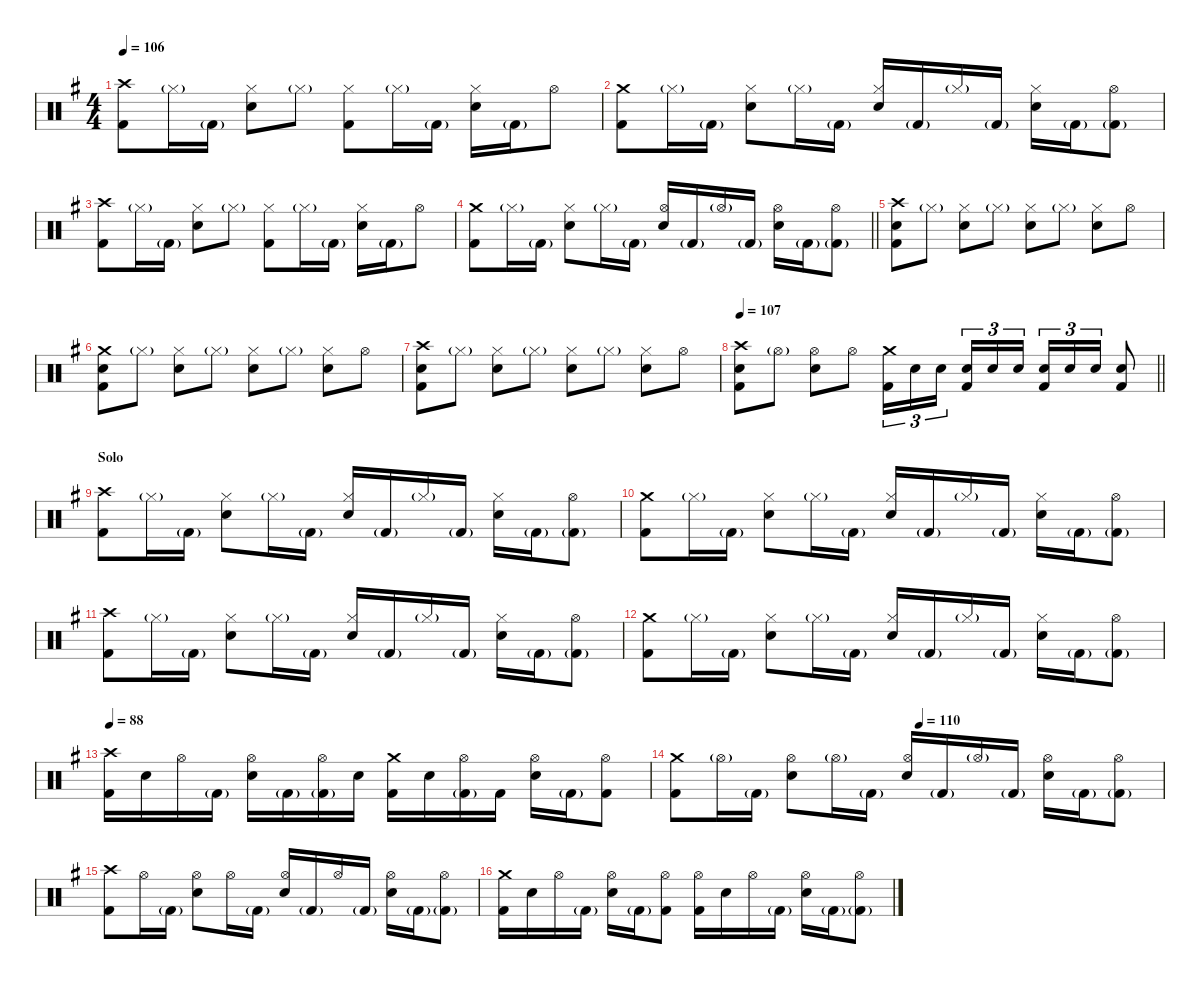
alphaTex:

\defaultSystemsLayout 4
\hideDynamics
\bracketExtendMode nobrackets
\singleTrackTrackNamePolicy hidden
\multiTrackTrackNamePolicy hidden
\firstSystemTrackNameMode fullname
\firstSystemTrackNameOrientation horizontal
\otherSystemsTrackNameOrientation horizontal
\track ("Bill" "drm.") {instrument percussion}
\staff {score}
\articulation defaults
\ts (4 4)
\tempo 106
\clef neutral
\ks eminor
("Crash high (hit)"{acc forcenatural} "Kick (hit) 2"{acc forcenatural}).8{dy f beam Down} "Hi-Hat (closed)"{g acc forcenatural}.16{dy mf beam Down} "Kick (hit) 2"{g acc forcenatural}.16{beam Down} ("Hi-Hat (closed)"{acc forcenatural} "Snare (hit) 2"{acc forcenatural}).8{dy f beam Down} "Hi-Hat (closed)"{g acc forcenatural}.8{dy mf beam Down} ("Hi-Hat (closed)"{acc forcenatural} "Kick (hit) 2"{acc forcenatural}).8{dy f beam Down} "Hi-Hat (closed)"{g acc forcenatural}.16{dy mf beam Down} "Kick (hit) 2"{g acc forcenatural}.16{beam Down} ("Hi-Hat (closed)"{acc forcenatural} "Snare (hit) 2"{acc forcenatural}).16{dy f beam Down} "Kick (hit) 2"{g acc forcenatural}.16{dy mf beam Down} "Hi-Hat (open)"{acc forcenatural}.8{dy f beam Down} |
("Crash medium (hit)"{acc forcenatural} "Kick (hit) 2"{acc forcenatural}).8{beam Down} "Hi-Hat (closed)"{g acc forcenatural}.16{dy mf beam Down} "Kick (hit) 2"{g acc forcenatural}.16{beam Down} ("Hi-Hat (closed)"{acc forcenatural} "Snare (hit) 2"{acc forcenatural}).8{dy f beam Down} "Hi-Hat (closed)"{g acc forcenatural}.16{dy mf beam Down} "Kick (hit) 2"{g acc forcenatural}.16{beam Down} ("Hi-Hat (closed)"{acc forcenatural} "Snare (hit) 2"{acc forcenatural}).16{dy f beam Up} "Kick (hit) 2"{g acc forcenatural}.16{dy mf beam Up} "Hi-Hat (closed)"{g acc forcenatural}.16{beam Up} "Kick (hit) 2"{g acc forcenatural}.16{beam Up} ("Hi-Hat (closed)"{acc forcenatural} "Snare (hit) 2"{acc forcenatural}).16{dy f beam Down} "Kick (hit) 2"{g acc forcenatural}.16{dy mf beam Down} ("Hi-Hat (open)"{acc forcenatural} "Kick (hit) 2"{g acc forcenatural}).8{dy f beam Down} |
("Crash high (hit)"{acc forcenatural} "Kick (hit) 2"{acc forcenatural}).8{beam Down} "Hi-Hat (closed)"{g acc forcenatural}.16{dy mf beam Down} "Kick (hit) 2"{g acc forcenatural}.16{beam Down} ("Hi-Hat (closed)"{acc forcenatural} "Snare (hit) 2"{acc forcenatural}).8{dy f beam Down} "Hi-Hat (closed)"{g acc forcenatural}.8{dy mf beam Down} ("Hi-Hat (closed)"{acc forcenatural} "Kick (hit) 2"{acc forcenatural}).8{dy f beam Down} "Hi-Hat (closed)"{g acc forcenatural}.16{dy mf beam Down} "Kick (hit) 2"{g acc forcenatural}.16{beam Down} ("Hi-Hat (closed)"{acc forcenatural} "Snare (hit) 2"{acc forcenatural}).16{dy f beam Down} "Kick (hit) 2"{g acc forcenatural}.16{dy mf beam Down} "Hi-Hat (open)"{acc forcenatural}.8{dy f beam Down} |
\barLineRight lightlight
("Crash medium (hit)"{acc forcenatural} "Kick (hit) 2"{acc forcenatural}).8{beam Down} "Hi-Hat (closed)"{g acc forcenatural}.16{dy mf beam Down} "Kick (hit) 2"{g acc forcenatural}.16{beam Down} ("Hi-Hat (closed)"{acc forcenatural} "Snare (hit) 2"{acc forcenatural}).8{dy f beam Down} "Hi-Hat (closed)"{g acc forcenatural}.16{dy mf beam Down} "Kick (hit) 2"{g acc forcenatural}.16{beam Down} ("Hi-Hat (open)"{acc forcenatural} "Snare (hit) 2"{acc forcenatural}).16{dy f beam Up} "Kick (hit) 2"{g acc forcenatural}.16{dy mf beam Up} "Hi-Hat (open)"{g acc forcenatural}.16{beam Up} "Kick (hit) 2"{g acc forcenatural}.16{beam Up} ("Hi-Hat (open)"{acc forcenatural} "Snare (hit) 2"{acc forcenatural}).16{dy f beam Down} "Kick (hit) 2"{g acc forcenatural}.16{dy mf beam Down} ("Hi-Hat (open)"{acc forcenatural} "Kick (hit) 2"{g acc forcenatural}).8{dy f beam Down} |
\section ("" "")
("Crash high (hit)"{acc forcenatural} "Snare (hit) 2"{acc forcenatural} "Kick (hit) 2"{acc forcenatural}).8{beam Down} "Hi-Hat (closed)"{g acc forcenatural}.8{dy mf beam Down} ("Hi-Hat (closed)"{acc forcenatural} "Snare (hit) 2"{acc forcenatural}).8{dy f beam Down} "Hi-Hat (closed)"{g acc forcenatural}.8{dy mf beam Down} ("Hi-Hat (closed)"{acc forcenatural} "Snare (hit) 2"{acc forcenatural}).8{dy f beam Down} "Hi-Hat (closed)"{g acc forcenatural}.8{dy mf beam Down} ("Hi-Hat (closed)"{acc forcenatural} "Snare (hit) 2"{acc forcenatural}).8{dy f beam Down} "Hi-Hat (open)"{acc forcenatural}.8{dy mf beam Down} |
("Crash medium (hit)"{acc forcenatural} "Snare (hit) 2"{acc forcenatural} "Kick (hit) 2"{acc forcenatural}).8{dy f beam Down} "Hi-Hat (closed)"{g acc forcenatural}.8{dy mf beam Down} ("Hi-Hat (closed)"{acc forcenatural} "Snare (hit) 2"{acc forcenatural}).8{dy f beam Down} "Hi-Hat (closed)"{g acc forcenatural}.8{dy mf beam Down} ("Hi-Hat (closed)"{acc forcenatural} "Snare (hit) 2"{acc forcenatural}).8{dy f beam Down} "Hi-Hat (closed)"{g acc forcenatural}.8{dy mf beam Down} ("Hi-Hat (closed)"{acc forcenatural} "Snare (hit) 2"{acc forcenatural}).8{dy f beam Down} "Hi-Hat (open)"{acc forcenatural}.8{dy mf beam Down} |
("Crash high (hit)"{acc forcenatural} "Snare (hit) 2"{acc forcenatural} "Kick (hit) 2"{acc forcenatural}).8{dy f beam Down} "Hi-Hat (closed)"{g acc forcenatural}.8{dy mf beam Down} ("Hi-Hat (closed)"{acc forcenatural} "Snare (hit) 2"{acc forcenatural}).8{dy f beam Down} "Hi-Hat (closed)"{g acc forcenatural}.8{dy mf beam Down} ("Hi-Hat (closed)"{acc forcenatural} "Snare (hit) 2"{acc forcenatural}).8{dy f beam Down} "Hi-Hat (closed)"{g acc forcenatural}.8{dy mf beam Down} ("Hi-Hat (closed)"{acc forcenatural} "Snare (hit) 2"{acc forcenatural}).8{dy f beam Down} "Hi-Hat (open)"{acc forcenatural}.8{dy mf beam Down} |
\tempo 107
\barLineRight lightlight
("Crash high (hit)"{acc forcenatural} "Snare (hit) 2"{acc forcenatural} "Kick (hit) 2"{acc forcenatural}).8{dy f beam Down} "Hi-Hat (open)"{g acc forcenatural}.8{dy mf beam Down} ("Hi-Hat (open)"{acc forcenatural} "Snare (hit) 2"{acc forcenatural}).8{dy f beam Down} "Hi-Hat (open)"{acc forcenatural}.8{dy mf beam Down} ("Crash medium (hit)"{acc forcenatural} "Kick (hit) 2"{acc forcenatural}).16{tu (3 2) dy f beam Down} "Snare (hit) 2"{acc forcenatural}.16{tu (3 2) dy p beam Down} "Snare (hit) 2"{acc forcenatural}.16{tu (3 2) beam Down} ("Snare (hit) 2"{acc forcenatural} "Kick (hit) 2"{acc forcenatural}).16{tu (3 2) dy mf beam Up} "Snare (hit) 2"{acc forcenatural}.16{tu (3 2) dy mp beam Up} "Snare (hit) 2"{acc forcenatural}.16{tu (3 2) dy p beam Up} ("Snare (hit) 2"{acc forcenatural} "Kick (hit) 2"{acc forcenatural}).16{tu (3 2) dy mf beam Up} "Snare (hit) 2"{acc forcenatural}.16{tu (3 2) dy mp beam Up} "Snare (hit) 2"{acc forcenatural}.16{tu (3 2) dy p beam Up} ("Snare (hit) 2"{acc forcenatural} "Kick (hit) 2"{acc forcenatural}).8{dy f beam Up} |
\section ("" "Solo")
("Crash high (hit)"{acc forcenatural} "Kick (hit) 2"{acc forcenatural}).8{beam Down} "Hi-Hat (closed)"{g acc forcenatural}.16{dy mf beam Down} "Kick (hit) 2"{g acc forcenatural}.16{beam Down} ("Hi-Hat (closed)"{acc forcenatural} "Snare (hit) 2"{acc forcenatural}).8{dy f beam Down} "Hi-Hat (closed)"{g acc forcenatural}.16{dy mf beam Down} "Kick (hit) 2"{g acc forcenatural}.16{beam Down} ("Hi-Hat (closed)"{acc forcenatural} "Snare (hit) 2"{acc forcenatural}).16{dy f beam Up} "Kick (hit) 2"{g acc forcenatural}.16{dy mf beam Up} "Hi-Hat (closed)"{g acc forcenatural}.16{beam Up} "Kick (hit) 2"{g acc forcenatural}.16{beam Up} ("Hi-Hat (closed)"{acc forcenatural} "Snare (hit) 2"{acc forcenatural}).16{dy f beam Down} "Kick (hit) 2"{g acc forcenatural}.16{dy mf beam Down} ("Hi-Hat (open)"{acc forcenatural} "Kick (hit) 2"{g acc forcenatural}).8{dy f beam Down} |
("Crash medium (hit)"{acc forcenatural} "Kick (hit) 2"{acc forcenatural}).8{beam Down} "Hi-Hat (closed)"{g acc forcenatural}.16{dy mf beam Down} "Kick (hit) 2"{g acc forcenatural}.16{beam Down} ("Hi-Hat (closed)"{acc forcenatural} "Snare (hit) 2"{acc forcenatural}).8{dy f beam Down} "Hi-Hat (closed)"{g acc forcenatural}.16{dy mf beam Down} "Kick (hit) 2"{g acc forcenatural}.16{beam Down} ("Hi-Hat (closed)"{acc forcenatural} "Snare (hit) 2"{acc forcenatural}).16{dy f beam Up} "Kick (hit) 2"{g acc forcenatural}.16{dy mf beam Up} "Hi-Hat (closed)"{g acc forcenatural}.16{beam Up} "Kick (hit) 2"{g acc forcenatural}.16{beam Up} ("Hi-Hat (closed)"{acc forcenatural} "Snare (hit) 2"{acc forcenatural}).16{dy f beam Down} "Kick (hit) 2"{g acc forcenatural}.16{dy mf beam Down} ("Hi-Hat (open)"{acc forcenatural} "Kick (hit) 2"{g acc forcenatural}).8{dy f beam Down} |
("Crash high (hit)"{acc forcenatural} "Kick (hit) 2"{acc forcenatural}).8{beam Down} "Hi-Hat (closed)"{g acc forcenatural}.16{dy mf beam Down} "Kick (hit) 2"{g acc forcenatural}.16{beam Down} ("Hi-Hat (closed)"{acc forcenatural} "Snare (hit) 2"{acc forcenatural}).8{dy f beam Down} "Hi-Hat (closed)"{g acc forcenatural}.16{dy mf beam Down} "Kick (hit) 2"{g acc forcenatural}.16{beam Down} ("Hi-Hat (closed)"{acc forcenatural} "Snare (hit) 2"{acc forcenatural}).16{dy f beam Up} "Kick (hit) 2"{g acc forcenatural}.16{dy mf beam Up} "Hi-Hat (closed)"{g acc forcenatural}.16{beam Up} "Kick (hit) 2"{g acc forcenatural}.16{beam Up} ("Hi-Hat (closed)"{acc forcenatural} "Snare (hit) 2"{acc forcenatural}).16{dy f beam Down} "Kick (hit) 2"{g acc forcenatural}.16{dy mf beam Down} ("Hi-Hat (open)"{acc forcenatural} "Kick (hit) 2"{g acc forcenatural}).8{dy f beam Down} |
("Crash medium (hit)"{acc forcenatural} "Kick (hit) 2"{acc forcenatural}).8{beam Down} "Hi-Hat (closed)"{g acc forcenatural}.16{dy mf beam Down} "Kick (hit) 2"{g acc forcenatural}.16{beam Down} ("Hi-Hat (closed)"{acc forcenatural} "Snare (hit) 2"{acc forcenatural}).8{dy f beam Down} "Hi-Hat (closed)"{g acc forcenatural}.16{dy mf beam Down} "Kick (hit) 2"{g acc forcenatural}.16{beam Down} ("Hi-Hat (closed)"{acc forcenatural} "Snare (hit) 2"{acc forcenatural}).16{dy f beam Up} "Kick (hit) 2"{g acc forcenatural}.16{dy mf beam Up} "Hi-Hat (closed)"{g acc forcenatural}.16{beam Up} "Kick (hit) 2"{g acc forcenatural}.16{beam Up} ("Hi-Hat (closed)"{acc forcenatural} "Snare (hit) 2"{acc forcenatural}).16{dy f beam Down} "Kick (hit) 2"{g acc forcenatural}.16{dy mf beam Down} ("Hi-Hat (open)"{acc forcenatural} "Kick (hit) 2"{g acc forcenatural}).8{dy f beam Down} |
\tempo 88
("Crash high (hit)"{acc forcenatural} "Kick (hit) 2"{acc forcenatural}).16{beam Down} "Snare (hit) 2"{acc forcenatural}.16{beam Down} "Hi-Hat (open)"{acc forcenatural}.16{beam Down} "Kick (hit) 2"{g acc forcenatural}.16{dy mf beam Down} ("Hi-Hat (open)"{acc forcenatural} "Snare (hit) 2"{acc forcenatural}).16{dy f beam Down} "Kick (hit) 2"{g acc forcenatural}.16{dy mf beam Down} ("Hi-Hat (open)"{acc forcenatural} "Kick (hit) 2"{g acc forcenatural}).16{beam Down} "Snare (hit) 2"{acc forcenatural}.16{dy f beam Down} ("Crash medium (hit)"{acc forcenatural} "Kick (hit) 2"{acc forcenatural}).16{dy mf beam Down} "Snare (hit) 2"{acc forcenatural}.16{dy f beam Down} ("Hi-Hat (open)"{acc forcenatural} "Kick (hit) 2"{g acc forcenatural}).16{dy mf beam Down} "Kick (hit) 2"{acc forcenatural}.16{dy f beam Down} ("Hi-Hat (open)"{acc forcenatural} "Snare (hit) 2"{acc forcenatural}).16{dy mf beam Down} "Kick (hit) 2"{g acc forcenatural}.16{beam Down} ("Hi-Hat (open)"{acc forcenatural} "Kick (hit) 2"{acc forcenatural}).8{beam Down} |
\tempo (110 0.5)
("Crash medium (hit)"{acc forcenatural} "Kick (hit) 2"{acc forcenatural}).8{dy f beam Down} "Hi-Hat (open)"{g acc forcenatural}.16{dy mf beam Down} "Kick (hit) 2"{g acc forcenatural}.16{beam Down} ("Hi-Hat (open)"{acc forcenatural} "Snare (hit) 2"{acc forcenatural}).8{dy f beam Down} "Hi-Hat (open)"{g acc forcenatural}.16{dy mf beam Down} "Kick (hit) 2"{g acc forcenatural}.16{beam Down} ("Hi-Hat (open)"{acc forcenatural} "Snare (hit) 2"{acc forcenatural}).16{dy f beam Up} "Kick (hit) 2"{g acc forcenatural}.16{dy mf beam Up} "Hi-Hat (open)"{g acc forcenatural}.16{beam Up} "Kick (hit) 2"{g acc forcenatural}.16{beam Up} ("Hi-Hat (open)"{acc forcenatural} "Snare (hit) 2"{acc forcenatural}).16{dy f beam Down} "Kick (hit) 2"{g acc forcenatural}.16{dy mf beam Down} ("Hi-Hat (open)"{acc forcenatural} "Kick (hit) 2"{g acc forcenatural}).8{dy f beam Down} |
("Crash high (hit)"{acc forcenatural} "Kick (hit) 2"{acc forcenatural}).8{beam Down} "Hi-Hat (open)"{acc forcenatural}.16{dy mf beam Down} "Kick (hit) 2"{g acc forcenatural}.16{beam Down} ("Hi-Hat (open)"{acc forcenatural} "Snare (hit) 2"{acc forcenatural}).8{dy f beam Down} "Hi-Hat (open)"{acc forcenatural}.16{dy mf beam Down} "Kick (hit) 2"{g acc forcenatural}.16{beam Down} ("Hi-Hat (open)"{acc forcenatural} "Snare (hit) 2"{acc forcenatural}).16{dy f beam Up} "Kick (hit) 2"{g acc forcenatural}.16{dy mf beam Up} "Hi-Hat (open)"{acc forcenatural}.16{beam Up} "Kick (hit) 2"{g acc forcenatural}.16{beam Up} ("Hi-Hat (open)"{acc forcenatural} "Snare (hit) 2"{acc forcenatural}).16{dy f beam Down} "Kick (hit) 2"{g acc forcenatural}.16{dy mf beam Down} ("Hi-Hat (open)"{acc forcenatural} "Kick (hit) 2"{g acc forcenatural}).8{dy f beam Down} |
("Crash medium (hit)"{acc forcenatural} "Kick (hit) 2"{acc forcenatural}).16{beam Down} "Snare (hit) 2"{acc forcenatural}.16{beam Down} "Hi-Hat (open)"{acc forcenatural}.16{beam Down} "Kick (hit) 2"{g acc forcenatural}.16{dy mf beam Down} ("Hi-Hat (open)"{acc forcenatural} "Snare (hit) 2"{acc forcenatural}).16{dy f beam Down} "Kick (hit) 2"{g acc forcenatural}.16{dy mf beam Down} ("Hi-Hat (open)"{acc forcenatural} "Kick (hit) 2"{acc forcenatural}).8{beam Down} ("Hi-Hat (open)"{acc forcenatural} "Kick (hit) 2"{acc forcenatural}).16{dy f beam Down} "Snare (hit) 2"{acc forcenatural}.16{beam Down} "Hi-Hat (open)"{acc forcenatural}.16{beam Down} "Kick (hit) 2"{g acc forcenatural}.16{dy mf beam Down} ("Hi-Hat (open)"{acc forcenatural} "Snare (hit) 2"{acc forcenatural}).16{dy f beam Down} "Kick (hit) 2"{g acc forcenatural}.16{dy mf beam Down} ("Hi-Hat (open)"{acc forcenatural} "Kick (hit) 2"{g acc forcenatural}).8{beam Down}
